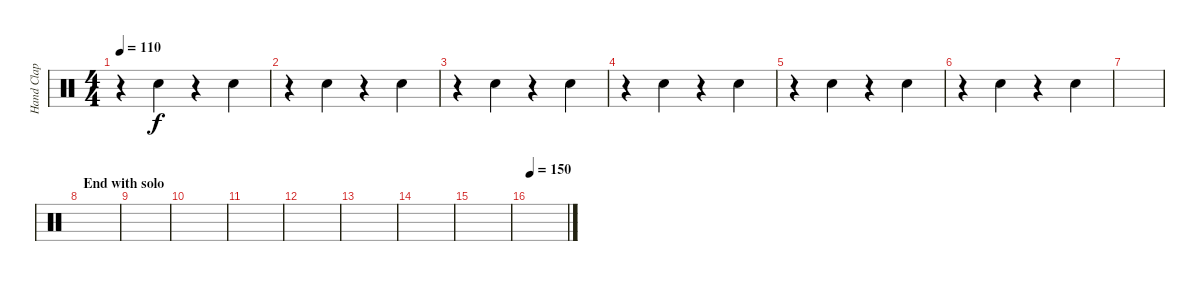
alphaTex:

\track ("Hand Clap" "Hand Clap") {instrument percussion}
\staff {score}
\articulation defaults
\ts (4 4)
\tempo 110
\clef neutral
\ks c
r.4{dy f} "Hand Clap (hit)".4 r.4 "Hand Clap (hit)".4 |
r.4 "Hand Clap (hit)".4 r.4 "Hand Clap (hit)".4 |
r.4 "Hand Clap (hit)".4 r.4 "Hand Clap (hit)".4 |
r.4 "Hand Clap (hit)".4 r.4 "Hand Clap (hit)".4 |
r.4 "Hand Clap (hit)".4 r.4 "Hand Clap (hit)".4 |
r.4 "Hand Clap (hit)".4 r.4 "Hand Clap (hit)".4 |
|
\section ("" "End with solo")
|
|
|
|
|
|
|
|
\tempo 150
